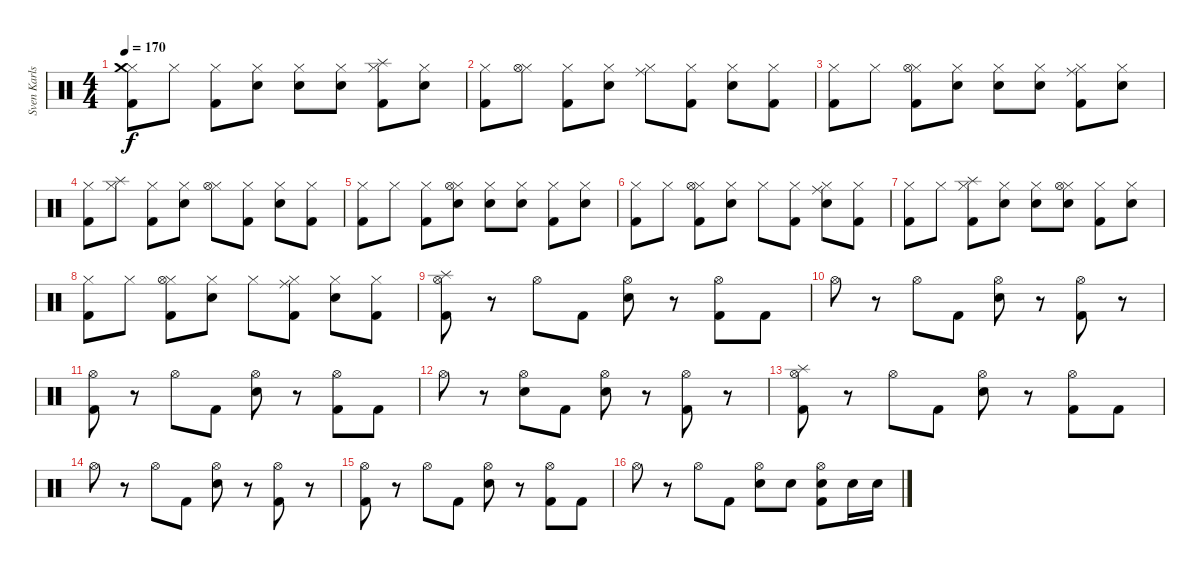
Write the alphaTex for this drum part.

\track ("Sven Karlsson" "Sven Karls") {instrument percussion}
\staff {score}
\articulation defaults
\ts (4 4)
\tempo 170
\clef neutral
\ks c
("Hi-Hat (closed)" "Crash medium (hit)" "Kick (hit) 2").8{dy f} "Hi-Hat (closed)".8 ("Hi-Hat (closed)" "Kick (hit) 2").8 ("Hi-Hat (closed)" "Electric Snare (hit)").8 ("Hi-Hat (closed)" "Electric Snare (hit)").8 ("Hi-Hat (closed)" "Electric Snare (hit)").8 ("Hi-Hat (closed)" "Splash (hit)" "Kick (hit) 2").8 ("Hi-Hat (closed)" "Electric Snare (hit)").8 |
("Hi-Hat (closed)" "Kick (hit) 2").8 ("Hi-Hat (closed)" "Hi-Hat (open)").8 ("Hi-Hat (closed)" "Kick (hit) 2").8 ("Hi-Hat (closed)" "Electric Snare (hit)").8 ("Hi-Hat (closed)" "Ride (middle)").8 ("Hi-Hat (closed)" "Kick (hit) 2").8 ("Hi-Hat (closed)" "Electric Snare (hit)").8 ("Hi-Hat (closed)" "Kick (hit) 2").8 |
("Hi-Hat (closed)" "Kick (hit) 2").8 "Hi-Hat (closed)".8 ("Hi-Hat (closed)" "Hi-Hat (open)" "Kick (hit) 2").8 ("Hi-Hat (closed)" "Electric Snare (hit)").8 ("Hi-Hat (closed)" "Electric Snare (hit)").8 ("Hi-Hat (closed)" "Electric Snare (hit)").8 ("Hi-Hat (closed)" "Ride (middle)" "Kick (hit) 2").8 ("Hi-Hat (closed)" "Electric Snare (hit)").8 |
("Hi-Hat (closed)" "Kick (hit) 2").8 ("Hi-Hat (closed)" "Splash (hit)").8 ("Hi-Hat (closed)" "Kick (hit) 2").8 ("Hi-Hat (closed)" "Electric Snare (hit)").8 ("Hi-Hat (closed)" "Hi-Hat (open)").8 ("Hi-Hat (closed)" "Kick (hit) 2").8 ("Hi-Hat (closed)" "Electric Snare (hit)").8 ("Hi-Hat (closed)" "Kick (hit) 2").8 |
("Hi-Hat (closed)" "Kick (hit) 2").8 "Hi-Hat (closed)".8 ("Hi-Hat (closed)" "Kick (hit) 2").8 ("Hi-Hat (closed)" "Hi-Hat (open)" "Electric Snare (hit)").8 ("Hi-Hat (closed)" "Electric Snare (hit)").8 ("Hi-Hat (closed)" "Electric Snare (hit)").8 ("Hi-Hat (closed)" "Kick (hit) 2").8 ("Hi-Hat (closed)" "Electric Snare (hit)").8 |
("Hi-Hat (closed)" "Kick (hit) 2").8 "Hi-Hat (closed)".8 ("Hi-Hat (closed)" "Hi-Hat (open)" "Kick (hit) 2").8 ("Hi-Hat (closed)" "Electric Snare (hit)").8 "Hi-Hat (closed)".8 ("Hi-Hat (closed)" "Kick (hit) 2").8 ("Hi-Hat (closed)" "Ride (middle)" "Electric Snare (hit)").8 ("Hi-Hat (closed)" "Kick (hit) 2").8 |
("Hi-Hat (closed)" "Kick (hit) 2").8 "Hi-Hat (closed)".8 ("Hi-Hat (closed)" "Splash (hit)" "Kick (hit) 2").8 ("Hi-Hat (closed)" "Electric Snare (hit)").8 ("Hi-Hat (closed)" "Electric Snare (hit)").8 ("Hi-Hat (closed)" "Hi-Hat (open)" "Electric Snare (hit)").8 ("Hi-Hat (closed)" "Kick (hit) 2").8 ("Hi-Hat (closed)" "Electric Snare (hit)").8 |
("Hi-Hat (closed)" "Kick (hit) 2").8 "Hi-Hat (closed)".8 ("Hi-Hat (closed)" "Hi-Hat (open)" "Kick (hit) 2").8 ("Hi-Hat (closed)" "Electric Snare (hit)").8 "Hi-Hat (closed)".8 ("Hi-Hat (closed)" "Ride (middle)" "Kick (hit) 2").8 ("Hi-Hat (closed)" "Electric Snare (hit)").8 ("Hi-Hat (closed)" "Kick (hit) 2").8 |
("Hi-Hat (open)" "Splash (hit)" "Kick (hit) 2").8 r.8 "Hi-Hat (open)".8 "Kick (hit) 2".8 ("Hi-Hat (open)" "Electric Snare (hit)").8 r.8 ("Hi-Hat (open)" "Kick (hit) 2").8 "Kick (hit) 2".8 |
"Hi-Hat (open)".8 r.8 "Hi-Hat (open)".8 "Kick (hit) 2".8 ("Hi-Hat (open)" "Electric Snare (hit)").8 r.8 ("Hi-Hat (open)" "Kick (hit) 2").8 r.8 |
("Hi-Hat (open)" "Kick (hit) 2").8 r.8 "Hi-Hat (open)".8 "Kick (hit) 2".8 ("Hi-Hat (open)" "Electric Snare (hit)").8 r.8 ("Hi-Hat (open)" "Kick (hit) 2").8 "Kick (hit) 2".8 |
"Hi-Hat (open)".8 r.8 ("Hi-Hat (open)" "Electric Snare (hit)").8 "Kick (hit) 2".8 ("Hi-Hat (open)" "Electric Snare (hit)").8 r.8 ("Hi-Hat (open)" "Kick (hit) 2").8 r.8 |
("Hi-Hat (open)" "Splash (hit)" "Kick (hit) 2").8 r.8 "Hi-Hat (open)".8 "Kick (hit) 2".8 ("Hi-Hat (open)" "Electric Snare (hit)").8 r.8 ("Hi-Hat (open)" "Kick (hit) 2").8 "Kick (hit) 2".8 |
"Hi-Hat (open)".8 r.8 "Hi-Hat (open)".8 "Kick (hit) 2".8 ("Hi-Hat (open)" "Electric Snare (hit)").8 r.8 ("Hi-Hat (open)" "Kick (hit) 2").8 r.8 |
("Hi-Hat (open)" "Kick (hit) 2").8 r.8 "Hi-Hat (open)".8 "Kick (hit) 2".8 ("Hi-Hat (open)" "Electric Snare (hit)").8 r.8 ("Hi-Hat (open)" "Kick (hit) 2").8 "Kick (hit) 2".8 |
"Hi-Hat (open)".8 r.8 "Hi-Hat (open)".8 "Kick (hit) 2".8 ("Hi-Hat (open)" "Electric Snare (hit)").8 "Electric Snare (hit)".8 ("Hi-Hat (open)" "Electric Snare (hit)" "Kick (hit) 2").8 "Electric Snare (hit)".16 "Electric Snare (hit)".16
